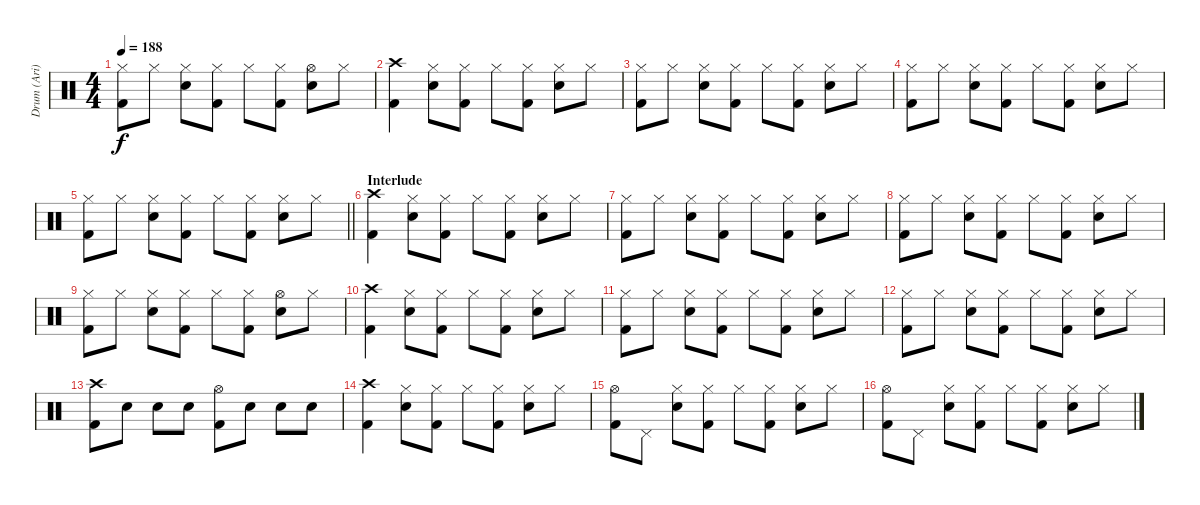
\track ("Drum (Ari)" "Drum (Ari)") {instrument percussion}
\staff {score}
\articulation defaults
\ts (4 4)
\tempo 188
\clef neutral
\ks c
("Hi-Hat (closed)" "Kick (hit) 2").8{dy f} "Hi-Hat (closed)".8 ("Hi-Hat (closed)" "Electric Snare (hit)").8 ("Hi-Hat (closed)" "Kick (hit) 2").8 "Hi-Hat (closed)".8 ("Hi-Hat (closed)" "Kick (hit) 2").8 ("Hi-Hat (open)" "Electric Snare (hit)").8 "Hi-Hat (closed)".8 |
("Crash high (hit)" "Kick (hit) 2").4 ("Hi-Hat (closed)" "Electric Snare (hit)").8 ("Hi-Hat (closed)" "Kick (hit) 2").8 "Hi-Hat (closed)".8 ("Hi-Hat (closed)" "Kick (hit) 2").8 ("Hi-Hat (closed)" "Electric Snare (hit)").8 "Hi-Hat (closed)".8 |
("Hi-Hat (closed)" "Kick (hit) 2").8 "Hi-Hat (closed)".8 ("Hi-Hat (closed)" "Electric Snare (hit)").8 ("Hi-Hat (closed)" "Kick (hit) 2").8 "Hi-Hat (closed)".8 ("Hi-Hat (closed)" "Kick (hit) 2").8 ("Hi-Hat (closed)" "Electric Snare (hit)").8 "Hi-Hat (closed)".8 |
("Hi-Hat (closed)" "Kick (hit) 2").8 "Hi-Hat (closed)".8 ("Hi-Hat (closed)" "Electric Snare (hit)").8 ("Hi-Hat (closed)" "Kick (hit) 2").8 "Hi-Hat (closed)".8 ("Hi-Hat (closed)" "Kick (hit) 2").8 ("Hi-Hat (closed)" "Electric Snare (hit)").8 "Hi-Hat (closed)".8 |
\barLineRight lightlight
("Hi-Hat (closed)" "Kick (hit) 2").8 "Hi-Hat (closed)".8 ("Hi-Hat (closed)" "Electric Snare (hit)").8 ("Hi-Hat (closed)" "Kick (hit) 2").8 "Hi-Hat (closed)".8 ("Hi-Hat (closed)" "Kick (hit) 2").8 ("Hi-Hat (closed)" "Electric Snare (hit)").8 "Hi-Hat (closed)".8 |
\section ("" "Interlude")
("Crash high (hit)" "Kick (hit) 2").4 ("Hi-Hat (closed)" "Electric Snare (hit)").8 ("Hi-Hat (closed)" "Kick (hit) 2").8 "Hi-Hat (closed)".8 ("Hi-Hat (closed)" "Kick (hit) 2").8 ("Hi-Hat (closed)" "Electric Snare (hit)").8 "Hi-Hat (closed)".8 |
("Hi-Hat (closed)" "Kick (hit) 2").8 "Hi-Hat (closed)".8 ("Hi-Hat (closed)" "Electric Snare (hit)").8 ("Hi-Hat (closed)" "Kick (hit) 2").8 "Hi-Hat (closed)".8 ("Hi-Hat (closed)" "Kick (hit) 2").8 ("Hi-Hat (closed)" "Electric Snare (hit)").8 "Hi-Hat (closed)".8 |
("Hi-Hat (closed)" "Kick (hit) 2").8 "Hi-Hat (closed)".8 ("Hi-Hat (closed)" "Electric Snare (hit)").8 ("Hi-Hat (closed)" "Kick (hit) 2").8 "Hi-Hat (closed)".8 ("Hi-Hat (closed)" "Kick (hit) 2").8 ("Hi-Hat (closed)" "Electric Snare (hit)").8 "Hi-Hat (closed)".8 |
("Hi-Hat (closed)" "Kick (hit) 2").8 "Hi-Hat (closed)".8 ("Hi-Hat (closed)" "Electric Snare (hit)").8 ("Hi-Hat (closed)" "Kick (hit) 2").8 "Hi-Hat (closed)".8 ("Hi-Hat (closed)" "Kick (hit) 2").8 ("Hi-Hat (open)" "Electric Snare (hit)").8 "Hi-Hat (closed)".8 |
("Crash high (hit)" "Kick (hit) 2").4 ("Hi-Hat (closed)" "Electric Snare (hit)").8 ("Hi-Hat (closed)" "Kick (hit) 2").8 "Hi-Hat (closed)".8 ("Hi-Hat (closed)" "Kick (hit) 2").8 ("Hi-Hat (closed)" "Electric Snare (hit)").8 "Hi-Hat (closed)".8 |
("Hi-Hat (closed)" "Kick (hit) 2").8 "Hi-Hat (closed)".8 ("Hi-Hat (closed)" "Electric Snare (hit)").8 ("Hi-Hat (closed)" "Kick (hit) 2").8 "Hi-Hat (closed)".8 ("Hi-Hat (closed)" "Kick (hit) 2").8 ("Hi-Hat (closed)" "Electric Snare (hit)").8 "Hi-Hat (closed)".8 |
("Hi-Hat (closed)" "Kick (hit) 2").8 "Hi-Hat (closed)".8 ("Hi-Hat (closed)" "Electric Snare (hit)").8 ("Hi-Hat (closed)" "Kick (hit) 2").8 "Hi-Hat (closed)".8 ("Hi-Hat (closed)" "Kick (hit) 2").8 ("Hi-Hat (closed)" "Electric Snare (hit)").8 "Hi-Hat (closed)".8 |
("Crash high (hit)" "Kick (hit) 2").8 "Electric Snare (hit)".8 "Electric Snare (hit)".8 "Electric Snare (hit)".8 ("Hi-Hat (open)" "Kick (hit) 2").8 "Electric Snare (hit)".8 "Electric Snare (hit)".8 "Electric Snare (hit)".8 |
("Crash high (hit)" "Kick (hit) 2").4 ("Hi-Hat (closed)" "Electric Snare (hit)").8 ("Hi-Hat (closed)" "Kick (hit) 2").8 "Hi-Hat (closed)".8 ("Hi-Hat (closed)" "Kick (hit) 2").8 ("Hi-Hat (closed)" "Electric Snare (hit)").8 "Hi-Hat (closed)".8 |
("Hi-Hat (open)" "Kick (hit) 2").8 "Pedal Hi-Hat (hit)".8 ("Hi-Hat (closed)" "Electric Snare (hit)").8 ("Hi-Hat (closed)" "Kick (hit) 2").8 "Hi-Hat (closed)".8 ("Hi-Hat (closed)" "Kick (hit) 2").8 ("Hi-Hat (closed)" "Electric Snare (hit)").8 "Hi-Hat (closed)".8 |
("Hi-Hat (open)" "Kick (hit) 2").8 "Pedal Hi-Hat (hit)".8 ("Hi-Hat (closed)" "Electric Snare (hit)").8 ("Hi-Hat (closed)" "Kick (hit) 2").8 "Hi-Hat (closed)".8 ("Hi-Hat (closed)" "Kick (hit) 2").8 ("Hi-Hat (closed)" "Electric Snare (hit)").8 "Hi-Hat (closed)".8
